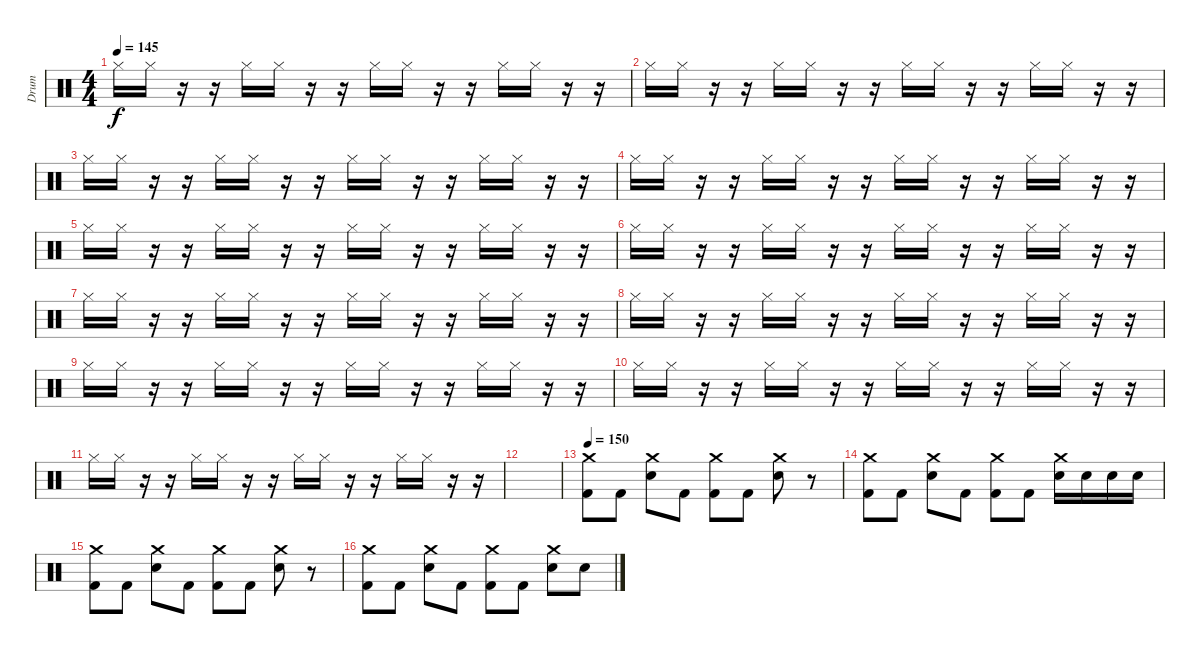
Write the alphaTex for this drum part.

\track ("Drum" "Drum") {instrument percussion}
\staff {score}
\articulation defaults
\ts (4 4)
\tempo 145
\clef neutral
\ks c "Hi-Hat (closed)".16{dy f} "Hi-Hat (closed)".16
r.16 r.16 "Hi-Hat (closed)".16 "Hi-Hat (closed)".16 r.16 r.16 "Hi-Hat (closed)".16 "Hi-Hat (closed)".16 r.16 r.16 "Hi-Hat (closed)".16 "Hi-Hat (closed)".16 r.16 r.16 |
"Hi-Hat (closed)".16 "Hi-Hat (closed)".16 r.16 r.16 "Hi-Hat (closed)".16 "Hi-Hat (closed)".16 r.16 r.16 "Hi-Hat (closed)".16 "Hi-Hat (closed)".16 r.16 r.16 "Hi-Hat (closed)".16 "Hi-Hat (closed)".16 r.16 r.16 |
"Hi-Hat (closed)".16 "Hi-Hat (closed)".16 r.16 r.16 "Hi-Hat (closed)".16 "Hi-Hat (closed)".16 r.16 r.16 "Hi-Hat (closed)".16 "Hi-Hat (closed)".16 r.16 r.16 "Hi-Hat (closed)".16 "Hi-Hat (closed)".16 r.16 r.16 |
"Hi-Hat (closed)".16 "Hi-Hat (closed)".16 r.16 r.16 "Hi-Hat (closed)".16 "Hi-Hat (closed)".16 r.16 r.16 "Hi-Hat (closed)".16 "Hi-Hat (closed)".16 r.16 r.16 "Hi-Hat (closed)".16 "Hi-Hat (closed)".16 r.16 r.16 |
"Hi-Hat (closed)".16 "Hi-Hat (closed)".16 r.16 r.16 "Hi-Hat (closed)".16 "Hi-Hat (closed)".16 r.16 r.16 "Hi-Hat (closed)".16 "Hi-Hat (closed)".16 r.16 r.16 "Hi-Hat (closed)".16 "Hi-Hat (closed)".16 r.16 r.16 |
"Hi-Hat (closed)".16 "Hi-Hat (closed)".16 r.16 r.16 "Hi-Hat (closed)".16 "Hi-Hat (closed)".16 r.16 r.16 "Hi-Hat (closed)".16 "Hi-Hat (closed)".16 r.16 r.16 "Hi-Hat (closed)".16 "Hi-Hat (closed)".16 r.16 r.16 |
"Hi-Hat (closed)".16 "Hi-Hat (closed)".16 r.16 r.16 "Hi-Hat (closed)".16 "Hi-Hat (closed)".16 r.16 r.16 "Hi-Hat (closed)".16 "Hi-Hat (closed)".16 r.16 r.16 "Hi-Hat (closed)".16 "Hi-Hat (closed)".16 r.16 r.16 |
"Hi-Hat (closed)".16 "Hi-Hat (closed)".16 r.16 r.16 "Hi-Hat (closed)".16 "Hi-Hat (closed)".16 r.16 r.16 "Hi-Hat (closed)".16 "Hi-Hat (closed)".16 r.16 r.16 "Hi-Hat (closed)".16 "Hi-Hat (closed)".16 r.16 r.16 |
"Hi-Hat (closed)".16 "Hi-Hat (closed)".16 r.16 r.16 "Hi-Hat (closed)".16 "Hi-Hat (closed)".16 r.16 r.16 "Hi-Hat (closed)".16 "Hi-Hat (closed)".16 r.16 r.16 "Hi-Hat (closed)".16 "Hi-Hat (closed)".16 r.16 r.16 |
"Hi-Hat (closed)".16 "Hi-Hat (closed)".16 r.16 r.16 "Hi-Hat (closed)".16 "Hi-Hat (closed)".16 r.16 r.16 "Hi-Hat (closed)".16 "Hi-Hat (closed)".16 r.16 r.16 "Hi-Hat (closed)".16 "Hi-Hat (closed)".16 r.16 r.16 |
"Hi-Hat (closed)".16 "Hi-Hat (closed)".16 r.16 r.16 "Hi-Hat (closed)".16 "Hi-Hat (closed)".16 r.16 r.16 "Hi-Hat (closed)".16 "Hi-Hat (closed)".16 r.16 r.16 "Hi-Hat (closed)".16 "Hi-Hat (closed)".16 r.16 r.16 |
|
\tempo 150
("Crash medium (hit)" "Kick (hit) 2").8 "Kick (hit) 2".8 ("Crash medium (hit)" "Electric Snare (hit)").8 "Kick (hit) 2".8 ("Crash medium (hit)" "Kick (hit) 2").8 "Kick (hit) 2".8 ("Crash medium (hit)" "Electric Snare (hit)").8 r.8 |
("Crash medium (hit)" "Kick (hit) 2").8 "Kick (hit) 2".8 ("Crash medium (hit)" "Electric Snare (hit)").8 "Kick (hit) 2".8 ("Crash medium (hit)" "Kick (hit) 2").8 "Kick (hit) 2".8 ("Crash medium (hit)" "Electric Snare (hit)").16 "Electric Snare (hit)".16 "Electric Snare (hit)".16 "Electric Snare (hit)".16 |
("Crash medium (hit)" "Kick (hit) 2").8 "Kick (hit) 2".8 ("Crash medium (hit)" "Electric Snare (hit)").8 "Kick (hit) 2".8 ("Crash medium (hit)" "Kick (hit) 2").8 "Kick (hit) 2".8 ("Crash medium (hit)" "Electric Snare (hit)").8 r.8 |
("Crash medium (hit)" "Kick (hit) 2").8 "Kick (hit) 2".8 ("Crash medium (hit)" "Electric Snare (hit)").8 "Kick (hit) 2".8 ("Crash medium (hit)" "Kick (hit) 2").8 "Kick (hit) 2".8 ("Crash medium (hit)" "Electric Snare (hit)").8 "Electric Snare (hit)".8
